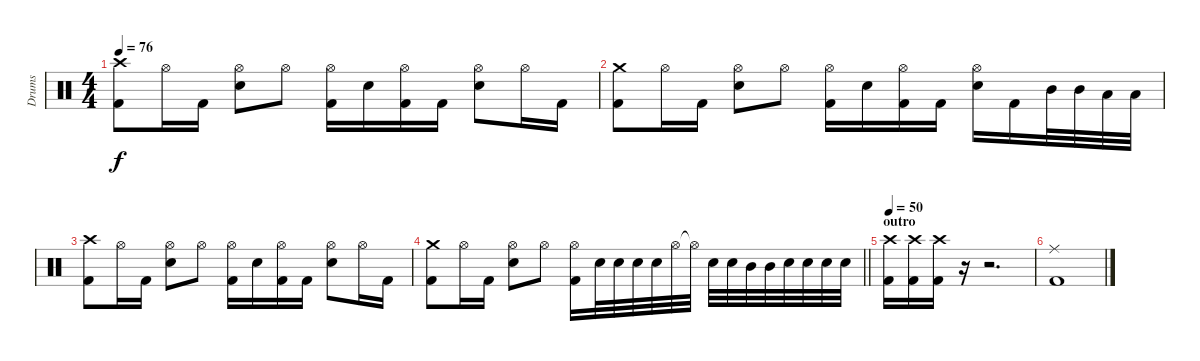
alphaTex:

\track ("Drums" "Drums") {instrument percussion}
\staff {score}
\articulation defaults
\ts (4 4)
\tempo 76
\clef neutral
\ks c
("Crash high (hit)" "Kick (hit) 2").8{dy f} "Hi-Hat (open)".16 "Kick (hit) 2".16 ("Hi-Hat (open)" "Snare (hit) 2").8 "Hi-Hat (open)".8 ("Hi-Hat (open)" "Kick (hit) 2").16 "Snare (hit) 2".16 ("Hi-Hat (open)" "Kick (hit) 2").16 "Kick (hit) 2".16 ("Hi-Hat (open)" "Snare (hit) 2").8 "Hi-Hat (open)".16 "Kick (hit) 2".16 |
("Crash medium (hit)" "Kick (hit) 2").8 "Hi-Hat (open)".16 "Kick (hit) 2".16 ("Hi-Hat (open)" "Snare (hit) 2").8 "Hi-Hat (open)".8 ("Hi-Hat (open)" "Kick (hit) 2").16 "Snare (hit) 2".16 ("Hi-Hat (open)" "Kick (hit) 2").16 "Kick (hit) 2".16 ("Hi-Hat (open)" "Snare (hit) 2").16 "Kick (hit) 2".16 "Mid Tom (hit)".32 "Mid Tom (hit)".32 "Low Tom (hit)".32 "Low Tom (hit)".32 |
("Crash high (hit)" "Kick (hit) 2").8 "Hi-Hat (open)".16 "Kick (hit) 2".16 ("Hi-Hat (open)" "Snare (hit) 2").8 "Hi-Hat (open)".8 ("Hi-Hat (open)" "Kick (hit) 2").16 "Snare (hit) 2".16 ("Hi-Hat (open)" "Kick (hit) 2").16 "Kick (hit) 2".16 ("Hi-Hat (open)" "Snare (hit) 2").8 "Hi-Hat (open)".16 "Kick (hit) 2".16 |
\barLineRight lightlight
("Crash medium (hit)" "Kick (hit) 2").8 "Hi-Hat (open)".16 "Kick (hit) 2".16 ("Hi-Hat (open)" "Snare (hit) 2").8 "Hi-Hat (open)".8 ("Hi-Hat (open)" "Kick (hit) 2").16 "Snare (hit) 2".32 "Snare (hit) 2".32 "Snare (hit) 2".32 "Snare (hit) 2".32 "Hi-Hat (open)".32 "Hi-Hat (open)"{t}.32 "Snare (hit) 2".32 "Snare (hit) 2".32 "Mid Tom (hit)".32 "Mid Tom (hit)".32 "Snare (hit) 2".32 "Snare (hit) 2".32 "Snare (hit) 2".32 "Snare (hit) 2".32 |
\section ("" "outro")
\tempo 50
("Crash high (hit)" "Kick (hit) 2").16 ("Crash high (hit)" "Kick (hit) 2").16 ("Crash high (hit)" "Kick (hit) 2").16 r.16 r.2{d} |
("Ride (middle)" "Kick (hit) 2").1
